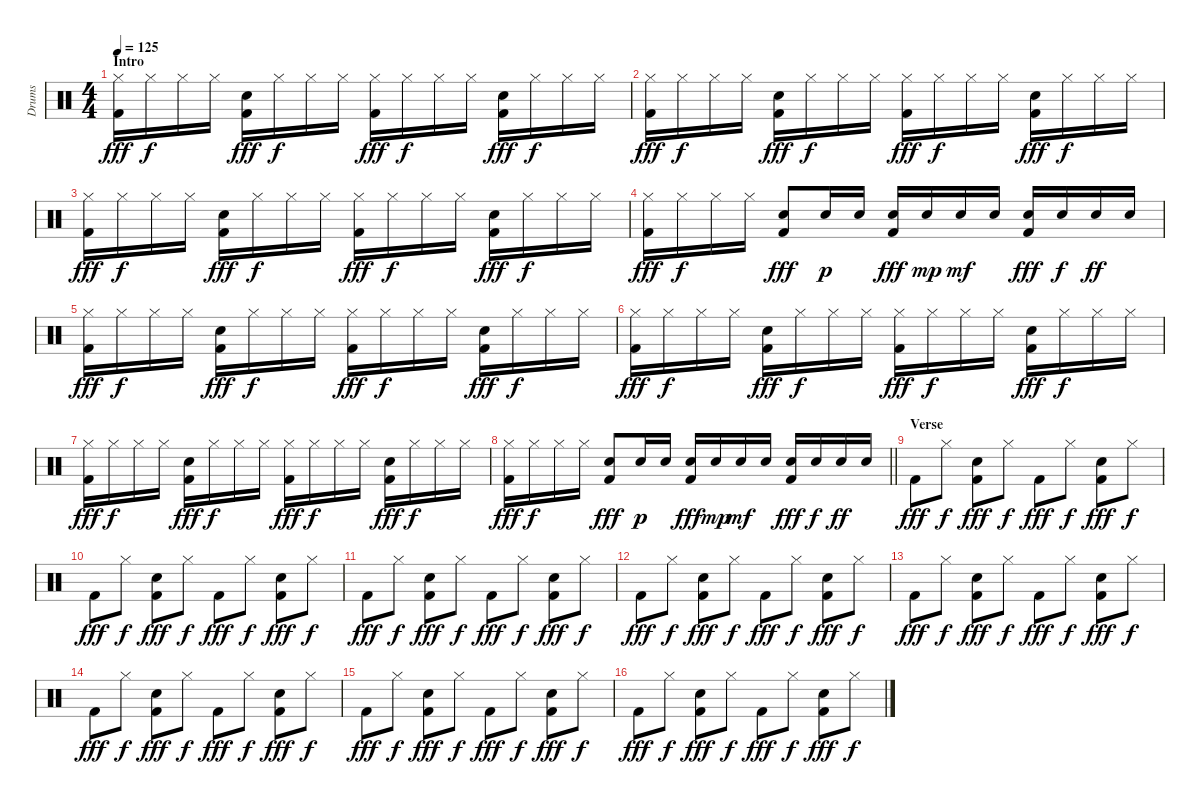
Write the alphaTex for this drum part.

\track ("Drums" "Drums") {instrument percussion}
\staff {score}
\articulation defaults
\ts (4 4)
\section ("" "Intro")
\tempo 125
\clef neutral
\ks c
("Hi-Hat (closed)" "Kick (hit) 2").16{dy fff} "Hi-Hat (closed)".16{dy f} "Hi-Hat (closed)".16 "Hi-Hat (closed)".16 ("Snare (hit) 2" "Kick (hit) 2").16{dy fff} "Hi-Hat (closed)".16{dy f} "Hi-Hat (closed)".16 "Hi-Hat (closed)".16 ("Hi-Hat (closed)" "Kick (hit) 2").16{dy fff} "Hi-Hat (closed)".16{dy f} "Hi-Hat (closed)".16 "Hi-Hat (closed)".16 ("Snare (hit) 2" "Kick (hit) 2").16{dy fff} "Hi-Hat (closed)".16{dy f} "Hi-Hat (closed)".16 "Hi-Hat (closed)".16 |
("Hi-Hat (closed)" "Kick (hit) 2").16{dy fff} "Hi-Hat (closed)".16{dy f} "Hi-Hat (closed)".16 "Hi-Hat (closed)".16 ("Snare (hit) 2" "Kick (hit) 2").16{dy fff} "Hi-Hat (closed)".16{dy f} "Hi-Hat (closed)".16 "Hi-Hat (closed)".16 ("Hi-Hat (closed)" "Kick (hit) 2").16{dy fff} "Hi-Hat (closed)".16{dy f} "Hi-Hat (closed)".16 "Hi-Hat (closed)".16 ("Snare (hit) 2" "Kick (hit) 2").16{dy fff} "Hi-Hat (closed)".16{dy f} "Hi-Hat (closed)".16 "Hi-Hat (closed)".16 |
("Hi-Hat (closed)" "Kick (hit) 2").16{dy fff} "Hi-Hat (closed)".16{dy f} "Hi-Hat (closed)".16 "Hi-Hat (closed)".16 ("Snare (hit) 2" "Kick (hit) 2").16{dy fff} "Hi-Hat (closed)".16{dy f} "Hi-Hat (closed)".16 "Hi-Hat (closed)".16 ("Hi-Hat (closed)" "Kick (hit) 2").16{dy fff} "Hi-Hat (closed)".16{dy f} "Hi-Hat (closed)".16 "Hi-Hat (closed)".16 ("Snare (hit) 2" "Kick (hit) 2").16{dy fff} "Hi-Hat (closed)".16{dy f} "Hi-Hat (closed)".16 "Hi-Hat (closed)".16 |
("Hi-Hat (closed)" "Kick (hit) 2").16{dy fff} "Hi-Hat (closed)".16{dy f} "Hi-Hat (closed)".16 "Hi-Hat (closed)".16 ("Snare (hit) 2" "Kick (hit) 2").8{dy fff} "Snare (hit) 2".16{dy p} "Snare (hit) 2".16 ("Snare (hit) 2" "Kick (hit) 2").16{dy fff} "Snare (hit) 2".16{dy mp} "Snare (hit) 2".16{dy mf} "Snare (hit) 2".16 ("Snare (hit) 2" "Kick (hit) 2").16{dy fff} "Snare (hit) 2".16{dy f} "Snare (hit) 2".16{dy ff} "Snare (hit) 2".16 |
("Hi-Hat (closed)" "Kick (hit) 2").16{dy fff} "Hi-Hat (closed)".16{dy f} "Hi-Hat (closed)".16 "Hi-Hat (closed)".16 ("Snare (hit) 2" "Kick (hit) 2").16{dy fff} "Hi-Hat (closed)".16{dy f} "Hi-Hat (closed)".16 "Hi-Hat (closed)".16 ("Hi-Hat (closed)" "Kick (hit) 2").16{dy fff} "Hi-Hat (closed)".16{dy f} "Hi-Hat (closed)".16 "Hi-Hat (closed)".16 ("Snare (hit) 2" "Kick (hit) 2").16{dy fff} "Hi-Hat (closed)".16{dy f} "Hi-Hat (closed)".16 "Hi-Hat (closed)".16 |
("Hi-Hat (closed)" "Kick (hit) 2").16{dy fff} "Hi-Hat (closed)".16{dy f} "Hi-Hat (closed)".16 "Hi-Hat (closed)".16 ("Snare (hit) 2" "Kick (hit) 2").16{dy fff} "Hi-Hat (closed)".16{dy f} "Hi-Hat (closed)".16 "Hi-Hat (closed)".16 ("Hi-Hat (closed)" "Kick (hit) 2").16{dy fff} "Hi-Hat (closed)".16{dy f} "Hi-Hat (closed)".16 "Hi-Hat (closed)".16 ("Snare (hit) 2" "Kick (hit) 2").16{dy fff} "Hi-Hat (closed)".16{dy f} "Hi-Hat (closed)".16 "Hi-Hat (closed)".16 |
("Hi-Hat (closed)" "Kick (hit) 2").16{dy fff} "Hi-Hat (closed)".16{dy f} "Hi-Hat (closed)".16 "Hi-Hat (closed)".16 ("Snare (hit) 2" "Kick (hit) 2").16{dy fff} "Hi-Hat (closed)".16{dy f} "Hi-Hat (closed)".16 "Hi-Hat (closed)".16 ("Hi-Hat (closed)" "Kick (hit) 2").16{dy fff} "Hi-Hat (closed)".16{dy f} "Hi-Hat (closed)".16 "Hi-Hat (closed)".16 ("Snare (hit) 2" "Kick (hit) 2").16{dy fff} "Hi-Hat (closed)".16{dy f} "Hi-Hat (closed)".16 "Hi-Hat (closed)".16 |
\barLineRight lightlight
("Hi-Hat (closed)" "Kick (hit) 2").16{dy fff} "Hi-Hat (closed)".16{dy f} "Hi-Hat (closed)".16 "Hi-Hat (closed)".16 ("Snare (hit) 2" "Kick (hit) 2").8{dy fff} "Snare (hit) 2".16{dy p} "Snare (hit) 2".16 ("Snare (hit) 2" "Kick (hit) 2").16{dy fff} "Snare (hit) 2".16{dy mp} "Snare (hit) 2".16{dy mf} "Snare (hit) 2".16 ("Snare (hit) 2" "Kick (hit) 2").16{dy fff} "Snare (hit) 2".16{dy f} "Snare (hit) 2".16{dy ff} "Snare (hit) 2".16 |
\section ("" "Verse")
"Kick (hit) 2".8{dy fff} "Hi-Hat (closed)".8{dy f} ("Snare (hit) 2" "Kick (hit) 2").8{dy fff} "Hi-Hat (closed)".8{dy f} "Kick (hit) 2".8{dy fff} "Hi-Hat (closed)".8{dy f} ("Snare (hit) 2" "Kick (hit) 2").8{dy fff} "Hi-Hat (closed)".8{dy f} |
"Kick (hit) 2".8{dy fff} "Hi-Hat (closed)".8{dy f} ("Snare (hit) 2" "Kick (hit) 2").8{dy fff} "Hi-Hat (closed)".8{dy f} "Kick (hit) 2".8{dy fff} "Hi-Hat (closed)".8{dy f} ("Snare (hit) 2" "Kick (hit) 2").8{dy fff} "Hi-Hat (closed)".8{dy f} |
"Kick (hit) 2".8{dy fff} "Hi-Hat (closed)".8{dy f} ("Snare (hit) 2" "Kick (hit) 2").8{dy fff} "Hi-Hat (closed)".8{dy f} "Kick (hit) 2".8{dy fff} "Hi-Hat (closed)".8{dy f} ("Snare (hit) 2" "Kick (hit) 2").8{dy fff} "Hi-Hat (closed)".8{dy f} |
"Kick (hit) 2".8{dy fff} "Hi-Hat (closed)".8{dy f} ("Snare (hit) 2" "Kick (hit) 2").8{dy fff} "Hi-Hat (closed)".8{dy f} "Kick (hit) 2".8{dy fff} "Hi-Hat (closed)".8{dy f} ("Snare (hit) 2" "Kick (hit) 2").8{dy fff} "Hi-Hat (closed)".8{dy f} |
"Kick (hit) 2".8{dy fff} "Hi-Hat (closed)".8{dy f} ("Snare (hit) 2" "Kick (hit) 2").8{dy fff} "Hi-Hat (closed)".8{dy f} "Kick (hit) 2".8{dy fff} "Hi-Hat (closed)".8{dy f} ("Snare (hit) 2" "Kick (hit) 2").8{dy fff} "Hi-Hat (closed)".8{dy f} |
"Kick (hit) 2".8{dy fff} "Hi-Hat (closed)".8{dy f} ("Snare (hit) 2" "Kick (hit) 2").8{dy fff} "Hi-Hat (closed)".8{dy f} "Kick (hit) 2".8{dy fff} "Hi-Hat (closed)".8{dy f} ("Snare (hit) 2" "Kick (hit) 2").8{dy fff} "Hi-Hat (closed)".8{dy f} |
"Kick (hit) 2".8{dy fff} "Hi-Hat (closed)".8{dy f} ("Snare (hit) 2" "Kick (hit) 2").8{dy fff} "Hi-Hat (closed)".8{dy f} "Kick (hit) 2".8{dy fff} "Hi-Hat (closed)".8{dy f} ("Snare (hit) 2" "Kick (hit) 2").8{dy fff} "Hi-Hat (closed)".8{dy f} |
"Kick (hit) 2".8{dy fff} "Hi-Hat (closed)".8{dy f} ("Snare (hit) 2" "Kick (hit) 2").8{dy fff} "Hi-Hat (closed)".8{dy f} "Kick (hit) 2".8{dy fff} "Hi-Hat (closed)".8{dy f} ("Snare (hit) 2" "Kick (hit) 2").8{dy fff} "Hi-Hat (closed)".8{dy f}
